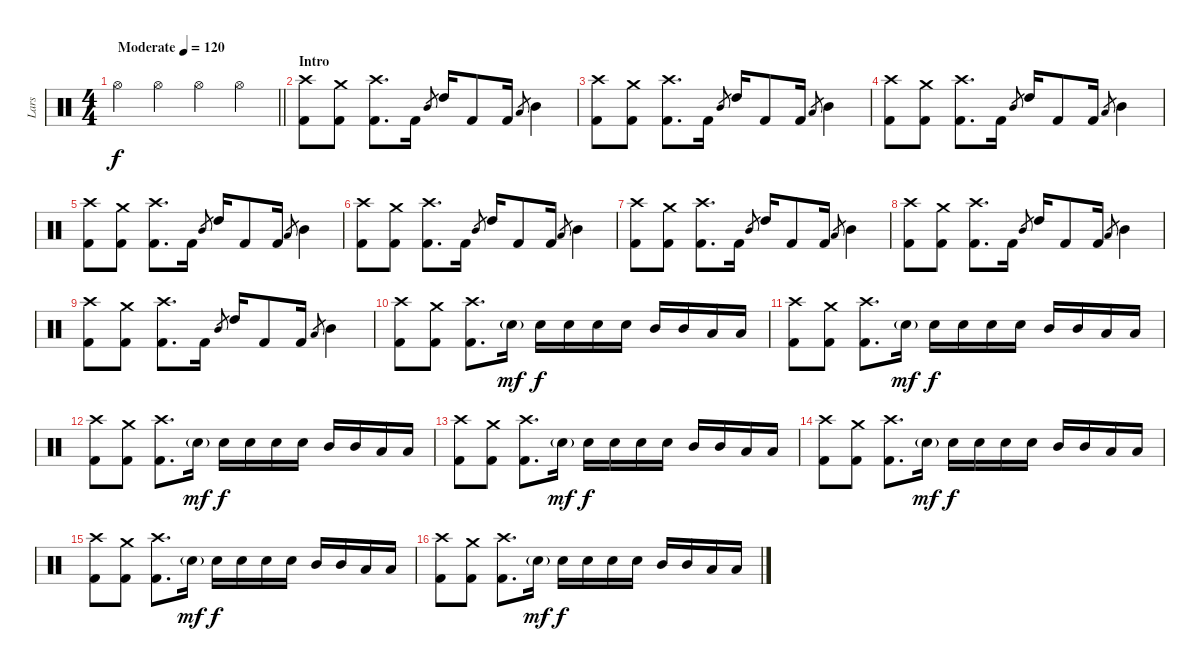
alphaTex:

\track ("Lars" "Lars") {instrument percussion}
\staff {score}
\articulation defaults
\ts (4 4)
\tempo (120 "Moderate")
\tempo 100
\tempo (120 "Moderate")
\clef neutral
\barLineRight lightlight
\ks c "Hi-Hat (open)".4{dy f} "Hi-Hat (open)".4 "Hi-Hat (open)".4 "Hi-Hat (open)".4
|
\section ("" "Intro")
("Crash high (hit)" "Kick (hit) 2").8 ("Crash medium (hit)" "Kick (hit) 2").8 ("Crash high (hit)" "Kick (hit) 2").8{d} "Kick (hit) 2".16 "Mid Tom (hit)".8{gr} "High Tom (hit)".16 "Kick (hit) 2".8 "Kick (hit) 2".16 "Low Tom (hit)".8{gr} "Mid Tom (hit)".4 |
("Crash high (hit)" "Kick (hit) 2").8 ("Crash medium (hit)" "Kick (hit) 2").8 ("Crash high (hit)" "Kick (hit) 2").8{d} "Kick (hit) 2".16 "Mid Tom (hit)".8{gr} "High Tom (hit)".16 "Kick (hit) 2".8 "Kick (hit) 2".16 "Low Tom (hit)".8{gr} "Mid Tom (hit)".4 |
("Crash high (hit)" "Kick (hit) 2").8 ("Crash medium (hit)" "Kick (hit) 2").8 ("Crash high (hit)" "Kick (hit) 2").8{d} "Kick (hit) 2".16 "Mid Tom (hit)".8{gr} "High Tom (hit)".16 "Kick (hit) 2".8 "Kick (hit) 2".16 "Low Tom (hit)".8{gr} "Mid Tom (hit)".4 |
("Crash high (hit)" "Kick (hit) 2").8 ("Crash medium (hit)" "Kick (hit) 2").8 ("Crash high (hit)" "Kick (hit) 2").8{d} "Kick (hit) 2".16 "Mid Tom (hit)".8{gr} "High Tom (hit)".16 "Kick (hit) 2".8 "Kick (hit) 2".16 "Low Tom (hit)".8{gr} "Mid Tom (hit)".4 |
("Crash high (hit)" "Kick (hit) 2").8 ("Crash medium (hit)" "Kick (hit) 2").8 ("Crash high (hit)" "Kick (hit) 2").8{d} "Kick (hit) 2".16 "Mid Tom (hit)".8{gr} "High Tom (hit)".16 "Kick (hit) 2".8 "Kick (hit) 2".16 "Low Tom (hit)".8{gr} "Mid Tom (hit)".4 |
("Crash high (hit)" "Kick (hit) 2").8 ("Crash medium (hit)" "Kick (hit) 2").8 ("Crash high (hit)" "Kick (hit) 2").8{d} "Kick (hit) 2".16 "Mid Tom (hit)".8{gr} "High Tom (hit)".16 "Kick (hit) 2".8 "Kick (hit) 2".16 "Low Tom (hit)".8{gr} "Mid Tom (hit)".4 |
("Crash high (hit)" "Kick (hit) 2").8 ("Crash medium (hit)" "Kick (hit) 2").8 ("Crash high (hit)" "Kick (hit) 2").8{d} "Kick (hit) 2".16 "Mid Tom (hit)".8{gr} "High Tom (hit)".16 "Kick (hit) 2".8 "Kick (hit) 2".16 "Low Tom (hit)".8{gr} "Mid Tom (hit)".4 |
("Crash high (hit)" "Kick (hit) 2").8 ("Crash medium (hit)" "Kick (hit) 2").8 ("Crash high (hit)" "Kick (hit) 2").8{d} "Kick (hit) 2".16 "Mid Tom (hit)".8{gr} "High Tom (hit)".16 "Kick (hit) 2".8 "Kick (hit) 2".16 "Low Tom (hit)".8{gr} "Mid Tom (hit)".4 |
("Crash high (hit)" "Kick (hit) 2").8 ("Crash medium (hit)" "Kick (hit) 2").8 ("Crash high (hit)" "Kick (hit) 2").8{d} "Snare (hit) 2"{g}.16{dy mf} "Snare (hit) 2".16{dy f} "Snare (hit) 2".16 "Snare (hit) 2".16 "Snare (hit) 2".16 "Mid Tom (hit)".16 "Mid Tom (hit)".16 "Low Tom (hit)".16 "Low Tom (hit)".16 |
("Crash high (hit)" "Kick (hit) 2").8 ("Crash medium (hit)" "Kick (hit) 2").8 ("Crash high (hit)" "Kick (hit) 2").8{d} "Snare (hit) 2"{g}.16{dy mf} "Snare (hit) 2".16{dy f} "Snare (hit) 2".16 "Snare (hit) 2".16 "Snare (hit) 2".16 "Mid Tom (hit)".16 "Mid Tom (hit)".16 "Low Tom (hit)".16 "Low Tom (hit)".16 |
("Crash high (hit)" "Kick (hit) 2").8 ("Crash medium (hit)" "Kick (hit) 2").8 ("Crash high (hit)" "Kick (hit) 2").8{d} "Snare (hit) 2"{g}.16{dy mf} "Snare (hit) 2".16{dy f} "Snare (hit) 2".16 "Snare (hit) 2".16 "Snare (hit) 2".16 "Mid Tom (hit)".16 "Mid Tom (hit)".16 "Low Tom (hit)".16 "Low Tom (hit)".16 |
("Crash high (hit)" "Kick (hit) 2").8 ("Crash medium (hit)" "Kick (hit) 2").8 ("Crash high (hit)" "Kick (hit) 2").8{d} "Snare (hit) 2"{g}.16{dy mf} "Snare (hit) 2".16{dy f} "Snare (hit) 2".16 "Snare (hit) 2".16 "Snare (hit) 2".16 "Mid Tom (hit)".16 "Mid Tom (hit)".16 "Low Tom (hit)".16 "Low Tom (hit)".16 |
("Crash high (hit)" "Kick (hit) 2").8 ("Crash medium (hit)" "Kick (hit) 2").8 ("Crash high (hit)" "Kick (hit) 2").8{d} "Snare (hit) 2"{g}.16{dy mf} "Snare (hit) 2".16{dy f} "Snare (hit) 2".16 "Snare (hit) 2".16 "Snare (hit) 2".16 "Mid Tom (hit)".16 "Mid Tom (hit)".16 "Low Tom (hit)".16 "Low Tom (hit)".16 |
("Crash high (hit)" "Kick (hit) 2").8 ("Crash medium (hit)" "Kick (hit) 2").8 ("Crash high (hit)" "Kick (hit) 2").8{d} "Snare (hit) 2"{g}.16{dy mf} "Snare (hit) 2".16{dy f} "Snare (hit) 2".16 "Snare (hit) 2".16 "Snare (hit) 2".16 "Mid Tom (hit)".16 "Mid Tom (hit)".16 "Low Tom (hit)".16 "Low Tom (hit)".16 |
("Crash high (hit)" "Kick (hit) 2").8 ("Crash medium (hit)" "Kick (hit) 2").8 ("Crash high (hit)" "Kick (hit) 2").8{d} "Snare (hit) 2"{g}.16{dy mf} "Snare (hit) 2".16{dy f} "Snare (hit) 2".16 "Snare (hit) 2".16 "Snare (hit) 2".16 "Mid Tom (hit)".16 "Mid Tom (hit)".16 "Low Tom (hit)".16 "Low Tom (hit)".16
